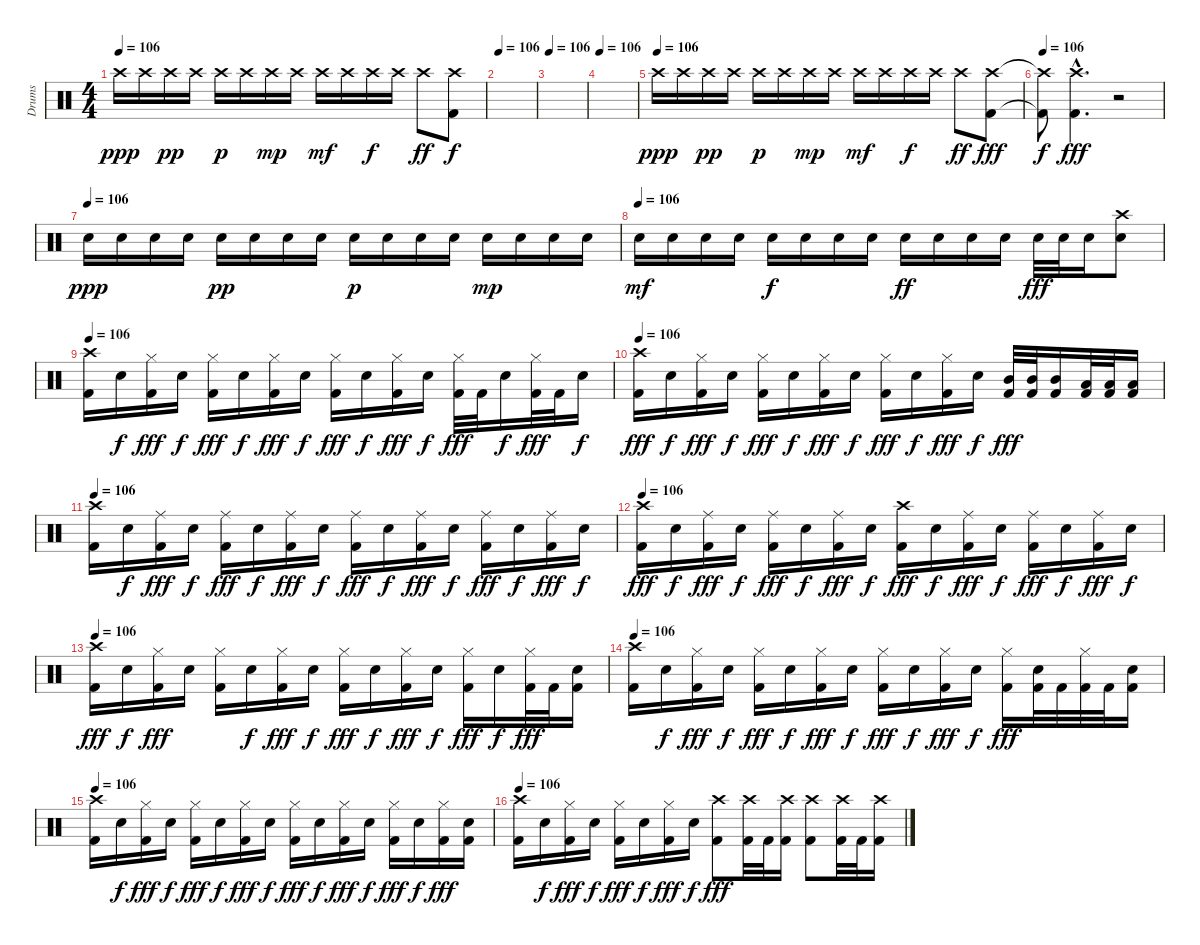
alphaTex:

\track ("Drums" "Drums") {instrument percussion}
\staff {score}
\articulation defaults
\ts (4 4)
\tempo 106
\clef neutral
\ks c "Crash high (hit)".16{dy ppp} "Crash high (hit)".16 "Crash high (hit)".16{dy pp} "Crash high (hit)".16 "Crash high (hit)".16{dy p} "Crash high (hit)".16 "Crash high (hit)".16{dy mp} "Crash high (hit)".16 "Crash high (hit)".16{dy mf} "Crash high (hit)".16 "Crash high (hit)".16{dy f} "Crash high (hit)".16 "Crash high (hit)".8{dy ff}
("Crash high (hit)" "Kick (hit) 2").8{dy f} |
\tempo 106
|
\tempo 106
|
\tempo 106
|
\tempo (106)
"Crash high (hit)".16{dy ppp} "Crash high (hit)".16 "Crash high (hit)".16{dy pp} "Crash high (hit)".16 "Crash high (hit)".16{dy p} "Crash high (hit)".16 "Crash high (hit)".16{dy mp} "Crash high (hit)".16 "Crash high (hit)".16{dy mf} "Crash high (hit)".16 "Crash high (hit)".16{dy f} "Crash high (hit)".16 "Crash high (hit)".8{dy ff} ("Crash high (hit)" "Kick (hit) 2").8{dy fff} |
\tempo 106
("Crash high (hit)"{t} "Kick (hit) 2"{t}).8{dy f} ("Crash high (hit)"{hac} "Kick (hit) 2"{hac}).4{d dy fff} r.2 |
\tempo (106)
"Snare (hit) 2".16{dy ppp} "Snare (hit) 2".16 "Snare (hit) 2".16 "Snare (hit) 2".16 "Snare (hit) 2".16{dy pp} "Snare (hit) 2".16 "Snare (hit) 2".16 "Snare (hit) 2".16 "Snare (hit) 2".16{dy p} "Snare (hit) 2".16 "Snare (hit) 2".16 "Snare (hit) 2".16 "Snare (hit) 2".16{dy mp} "Snare (hit) 2".16 "Snare (hit) 2".16 "Snare (hit) 2".16 |
\tempo (106)
"Snare (hit) 2".16{dy mf} "Snare (hit) 2".16 "Snare (hit) 2".16 "Snare (hit) 2".16 "Snare (hit) 2".16{dy f} "Snare (hit) 2".16 "Snare (hit) 2".16 "Snare (hit) 2".16 "Snare (hit) 2".16{dy ff} "Snare (hit) 2".16 "Snare (hit) 2".16 "Snare (hit) 2".16 "Snare (hit) 2".32{dy fff} "Snare (hit) 2".32 "Snare (hit) 2".16 ("Crash high (hit)" "Snare (hit) 2").8 |
\tempo 106
("Crash high (hit)" "Kick (hit) 2").16 "Snare (hit) 2".16{dy f} ("Hi-Hat (closed)" "Kick (hit) 2").16{dy fff} "Snare (hit) 2".16{dy f} ("Hi-Hat (closed)" "Kick (hit) 2").16{dy fff} "Snare (hit) 2".16{dy f} ("Hi-Hat (closed)" "Kick (hit) 2").16{dy fff} "Snare (hit) 2".16{dy f} ("Hi-Hat (closed)" "Kick (hit) 2").16{dy fff} "Snare (hit) 2".16{dy f} ("Hi-Hat (closed)" "Kick (hit) 2").16{dy fff} "Snare (hit) 2".16{dy f} ("Hi-Hat (closed)" "Kick (hit) 2").32{dy fff} "Kick (hit) 2".32 "Snare (hit) 2".16{dy f} ("Hi-Hat (closed)" "Kick (hit) 2").32{dy fff} "Kick (hit) 2".32 "Snare (hit) 2".16{dy f} |
\tempo 106
("Crash high (hit)" "Kick (hit) 2").16{dy fff} "Snare (hit) 2".16{dy f} ("Hi-Hat (closed)" "Kick (hit) 2").16{dy fff} "Snare (hit) 2".16{dy f} ("Hi-Hat (closed)" "Kick (hit) 2").16{dy fff} "Snare (hit) 2".16{dy f} ("Hi-Hat (closed)" "Kick (hit) 2").16{dy fff} "Snare (hit) 2".16{dy f} ("Hi-Hat (closed)" "Kick (hit) 2").16{dy fff} "Snare (hit) 2".16{dy f} ("Hi-Hat (closed)" "Kick (hit) 2").16{dy fff} "Snare (hit) 2".16{dy f} ("Mid Tom (hit)" "Kick (hit) 2").32{dy fff} ("Mid Tom (hit)" "Kick (hit) 2").32 ("Mid Tom (hit)" "Kick (hit) 2").16 ("Low Tom (hit)" "Kick (hit) 2").32 ("Low Tom (hit)" "Kick (hit) 2").32 ("Low Tom (hit)" "Kick (hit) 2").16 |
\tempo 106
("Crash high (hit)" "Kick (hit) 2").16 "Snare (hit) 2".16{dy f} ("Ride (middle)" "Kick (hit) 2").16{dy fff} "Snare (hit) 2".16{dy f} ("Ride (middle)" "Kick (hit) 2").16{dy fff} "Snare (hit) 2".16{dy f} ("Ride (middle)" "Kick (hit) 2").16{dy fff} "Snare (hit) 2".16{dy f} ("Ride (middle)" "Kick (hit) 2").16{dy fff} "Snare (hit) 2".16{dy f} ("Ride (middle)" "Kick (hit) 2").16{dy fff} "Snare (hit) 2".16{dy f} ("Ride (middle)" "Kick (hit) 2").16{dy fff} "Snare (hit) 2".16{dy f} ("Ride (middle)" "Kick (hit) 2").16{dy fff} "Snare (hit) 2".16{dy f} |
\tempo 106
("Crash high (hit)" "Kick (hit) 2").16{dy fff} "Snare (hit) 2".16{dy f} ("Ride (middle)" "Kick (hit) 2").16{dy fff} "Snare (hit) 2".16{dy f} ("Ride (middle)" "Kick (hit) 2").16{dy fff} "Snare (hit) 2".16{dy f} ("Ride (middle)" "Kick (hit) 2").16{dy fff} "Snare (hit) 2".16{dy f} ("Crash high (hit)" "Kick (hit) 2").16{dy fff} "Snare (hit) 2".16{dy f} ("Ride (middle)" "Kick (hit) 2").16{dy fff} "Snare (hit) 2".16{dy f} ("Ride (middle)" "Kick (hit) 2").16{dy fff} "Snare (hit) 2".16{dy f} ("Ride (middle)" "Kick (hit) 2").16{dy fff} "Snare (hit) 2".16{dy f} |
\tempo 106
("Crash high (hit)" "Kick (hit) 2").16{dy fff} "Snare (hit) 2".16{dy f} ("Hi-Hat (closed)" "Kick (hit) 2").16{dy fff} "Snare (hit) 2".16 ("Hi-Hat (closed)" "Kick (hit) 2").16 "Snare (hit) 2".16{dy f} ("Hi-Hat (closed)" "Kick (hit) 2").16{dy fff} "Snare (hit) 2".16{dy f} ("Hi-Hat (closed)" "Kick (hit) 2").16{dy fff} "Snare (hit) 2".16{dy f} ("Hi-Hat (closed)" "Kick (hit) 2").16{dy fff} "Snare (hit) 2".16{dy f} ("Hi-Hat (closed)" "Kick (hit) 2").16{dy fff} "Snare (hit) 2".16{dy f} ("Hi-Hat (closed)" "Kick (hit) 2").32{dy fff} "Kick (hit) 2".32 ("Snare (hit) 2" "Kick (hit) 2").16 |
\tempo 106
("Crash high (hit)" "Kick (hit) 2").16 "Snare (hit) 2".16{dy f} ("Hi-Hat (closed)" "Kick (hit) 2").16{dy fff} "Snare (hit) 2".16{dy f} ("Hi-Hat (closed)" "Kick (hit) 2").16{dy fff} "Snare (hit) 2".16{dy f} ("Hi-Hat (closed)" "Kick (hit) 2").16{dy fff} "Snare (hit) 2".16{dy f} ("Hi-Hat (closed)" "Kick (hit) 2").16{dy fff} "Snare (hit) 2".16{dy f} ("Hi-Hat (closed)" "Kick (hit) 2").16{dy fff} "Snare (hit) 2".16{dy f} ("Hi-Hat (closed)" "Kick (hit) 2").16{dy fff} ("Snare (hit) 2" "Kick (hit) 2").32 "Kick (hit) 2".32 ("Hi-Hat (closed)" "Kick (hit) 2").32 "Kick (hit) 2".32 ("Snare (hit) 2" "Kick (hit) 2").16 |
\tempo 106
("Crash high (hit)" "Kick (hit) 2").16 "Snare (hit) 2".16{dy f} ("Hi-Hat (closed)" "Kick (hit) 2").16{dy fff} "Snare (hit) 2".16{dy f} ("Hi-Hat (closed)" "Kick (hit) 2").16{dy fff} "Snare (hit) 2".16{dy f} ("Hi-Hat (closed)" "Kick (hit) 2").16{dy fff} "Snare (hit) 2".16{dy f} ("Hi-Hat (closed)" "Kick (hit) 2").16{dy fff} "Snare (hit) 2".16{dy f} ("Hi-Hat (closed)" "Kick (hit) 2").16{dy fff} "Snare (hit) 2".16{dy f} ("Hi-Hat (closed)" "Kick (hit) 2").16{dy fff} "Snare (hit) 2".16{dy f} ("Hi-Hat (closed)" "Kick (hit) 2").16{dy fff} ("Snare (hit) 2" "Kick (hit) 2").16 |
\tempo 106
("Crash high (hit)" "Kick (hit) 2").16 "Snare (hit) 2".16{dy f} ("Hi-Hat (closed)" "Kick (hit) 2").16{dy fff} "Snare (hit) 2".16{dy f} ("Hi-Hat (closed)" "Kick (hit) 2").16{dy fff} "Snare (hit) 2".16{dy f} ("Hi-Hat (closed)" "Kick (hit) 2").16{dy fff} "Snare (hit) 2".16{dy f} ("Crash high (hit)" "Kick (hit) 2").8{dy fff} ("Crash high (hit)" "Kick (hit) 2").32 "Kick (hit) 2".32 ("Crash high (hit)" "Kick (hit) 2").16 ("Crash high (hit)" "Kick (hit) 2").8 ("Crash high (hit)" "Kick (hit) 2").32 "Kick (hit) 2".32 ("Crash high (hit)" "Kick (hit) 2").16
